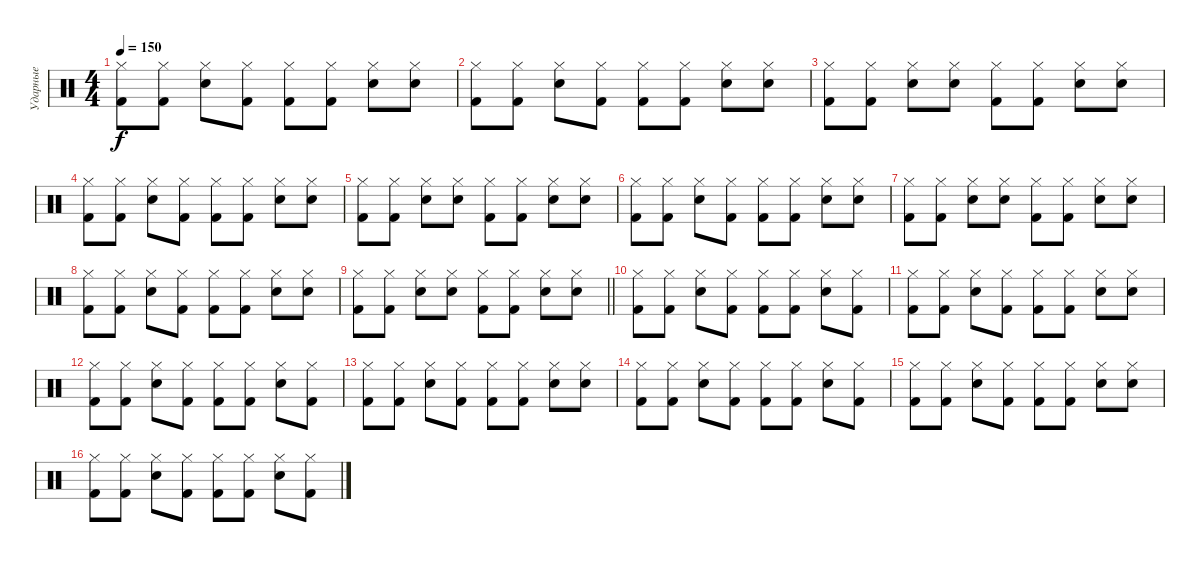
\track ("Ударные" "Ударные") {instrument percussion}
\staff {score}
\articulation defaults
\ts (4 4)
\tempo 150
\clef neutral
\ks c
("Hi-Hat (closed)" "Kick (hit) 2").8{dy f} ("Hi-Hat (closed)" "Kick (hit) 2").8 ("Hi-Hat (closed)" "Snare (hit) 2").8 ("Hi-Hat (closed)" "Kick (hit) 2").8 ("Hi-Hat (closed)" "Kick (hit) 2").8 ("Hi-Hat (closed)" "Kick (hit) 2").8 ("Hi-Hat (closed)" "Snare (hit) 2").8 ("Hi-Hat (closed)" "Snare (hit) 2").8 |
("Hi-Hat (closed)" "Kick (hit) 2").8 ("Hi-Hat (closed)" "Kick (hit) 2").8 ("Hi-Hat (closed)" "Snare (hit) 2").8 ("Hi-Hat (closed)" "Kick (hit) 2").8 ("Hi-Hat (closed)" "Kick (hit) 2").8 ("Hi-Hat (closed)" "Kick (hit) 2").8 ("Hi-Hat (closed)" "Snare (hit) 2").8 ("Hi-Hat (closed)" "Snare (hit) 2").8 |
("Hi-Hat (closed)" "Kick (hit) 2").8 ("Hi-Hat (closed)" "Kick (hit) 2").8 ("Hi-Hat (closed)" "Snare (hit) 2").8 ("Hi-Hat (closed)" "Snare (hit) 2").8 ("Hi-Hat (closed)" "Kick (hit) 2").8 ("Hi-Hat (closed)" "Kick (hit) 2").8 ("Hi-Hat (closed)" "Snare (hit) 2").8 ("Hi-Hat (closed)" "Snare (hit) 2").8 |
("Hi-Hat (closed)" "Kick (hit) 2").8 ("Hi-Hat (closed)" "Kick (hit) 2").8 ("Hi-Hat (closed)" "Snare (hit) 2").8 ("Hi-Hat (closed)" "Kick (hit) 2").8 ("Hi-Hat (closed)" "Kick (hit) 2").8 ("Hi-Hat (closed)" "Kick (hit) 2").8 ("Hi-Hat (closed)" "Snare (hit) 2").8 ("Hi-Hat (closed)" "Snare (hit) 2").8 |
("Hi-Hat (closed)" "Kick (hit) 2").8 ("Hi-Hat (closed)" "Kick (hit) 2").8 ("Hi-Hat (closed)" "Snare (hit) 2").8 ("Hi-Hat (closed)" "Snare (hit) 2").8 ("Hi-Hat (closed)" "Kick (hit) 2").8 ("Hi-Hat (closed)" "Kick (hit) 2").8 ("Hi-Hat (closed)" "Snare (hit) 2").8 ("Hi-Hat (closed)" "Snare (hit) 2").8 |
("Hi-Hat (closed)" "Kick (hit) 2").8 ("Hi-Hat (closed)" "Kick (hit) 2").8 ("Hi-Hat (closed)" "Snare (hit) 2").8 ("Hi-Hat (closed)" "Kick (hit) 2").8 ("Hi-Hat (closed)" "Kick (hit) 2").8 ("Hi-Hat (closed)" "Kick (hit) 2").8 ("Hi-Hat (closed)" "Snare (hit) 2").8 ("Hi-Hat (closed)" "Snare (hit) 2").8 |
("Hi-Hat (closed)" "Kick (hit) 2").8 ("Hi-Hat (closed)" "Kick (hit) 2").8 ("Hi-Hat (closed)" "Snare (hit) 2").8 ("Hi-Hat (closed)" "Snare (hit) 2").8 ("Hi-Hat (closed)" "Kick (hit) 2").8 ("Hi-Hat (closed)" "Kick (hit) 2").8 ("Hi-Hat (closed)" "Snare (hit) 2").8 ("Hi-Hat (closed)" "Snare (hit) 2").8 |
("Hi-Hat (closed)" "Kick (hit) 2").8 ("Hi-Hat (closed)" "Kick (hit) 2").8 ("Hi-Hat (closed)" "Snare (hit) 2").8 ("Hi-Hat (closed)" "Kick (hit) 2").8 ("Hi-Hat (closed)" "Kick (hit) 2").8 ("Hi-Hat (closed)" "Kick (hit) 2").8 ("Hi-Hat (closed)" "Snare (hit) 2").8 ("Hi-Hat (closed)" "Snare (hit) 2").8 |
\barLineRight lightlight
("Hi-Hat (closed)" "Kick (hit) 2").8 ("Hi-Hat (closed)" "Kick (hit) 2").8 ("Hi-Hat (closed)" "Snare (hit) 2").8 ("Hi-Hat (closed)" "Snare (hit) 2").8 ("Hi-Hat (closed)" "Kick (hit) 2").8 ("Hi-Hat (closed)" "Kick (hit) 2").8 ("Hi-Hat (closed)" "Snare (hit) 2").8 ("Hi-Hat (closed)" "Snare (hit) 2").8 |
("Hi-Hat (closed)" "Kick (hit) 2").8 ("Hi-Hat (closed)" "Kick (hit) 2").8 ("Hi-Hat (closed)" "Snare (hit) 2").8 ("Hi-Hat (closed)" "Kick (hit) 2").8 ("Hi-Hat (closed)" "Kick (hit) 2").8 ("Hi-Hat (closed)" "Kick (hit) 2").8 ("Hi-Hat (closed)" "Snare (hit) 2").8 ("Hi-Hat (closed)" "Kick (hit) 2").8 |
("Hi-Hat (closed)" "Kick (hit) 2").8 ("Hi-Hat (closed)" "Kick (hit) 2").8 ("Hi-Hat (closed)" "Snare (hit) 2").8 ("Hi-Hat (closed)" "Kick (hit) 2").8 ("Hi-Hat (closed)" "Kick (hit) 2").8 ("Hi-Hat (closed)" "Kick (hit) 2").8 ("Hi-Hat (closed)" "Snare (hit) 2").8 ("Hi-Hat (closed)" "Snare (hit) 2").8 |
("Hi-Hat (closed)" "Kick (hit) 2").8 ("Hi-Hat (closed)" "Kick (hit) 2").8 ("Hi-Hat (closed)" "Snare (hit) 2").8 ("Hi-Hat (closed)" "Kick (hit) 2").8 ("Hi-Hat (closed)" "Kick (hit) 2").8 ("Hi-Hat (closed)" "Kick (hit) 2").8 ("Hi-Hat (closed)" "Snare (hit) 2").8 ("Hi-Hat (closed)" "Kick (hit) 2").8 |
("Hi-Hat (closed)" "Kick (hit) 2").8 ("Hi-Hat (closed)" "Kick (hit) 2").8 ("Hi-Hat (closed)" "Snare (hit) 2").8 ("Hi-Hat (closed)" "Kick (hit) 2").8 ("Hi-Hat (closed)" "Kick (hit) 2").8 ("Hi-Hat (closed)" "Kick (hit) 2").8 ("Hi-Hat (closed)" "Snare (hit) 2").8 ("Hi-Hat (closed)" "Snare (hit) 2").8 |
("Hi-Hat (closed)" "Kick (hit) 2").8 ("Hi-Hat (closed)" "Kick (hit) 2").8 ("Hi-Hat (closed)" "Snare (hit) 2").8 ("Hi-Hat (closed)" "Kick (hit) 2").8 ("Hi-Hat (closed)" "Kick (hit) 2").8 ("Hi-Hat (closed)" "Kick (hit) 2").8 ("Hi-Hat (closed)" "Snare (hit) 2").8 ("Hi-Hat (closed)" "Kick (hit) 2").8 |
("Hi-Hat (closed)" "Kick (hit) 2").8 ("Hi-Hat (closed)" "Kick (hit) 2").8 ("Hi-Hat (closed)" "Snare (hit) 2").8 ("Hi-Hat (closed)" "Kick (hit) 2").8 ("Hi-Hat (closed)" "Kick (hit) 2").8 ("Hi-Hat (closed)" "Kick (hit) 2").8 ("Hi-Hat (closed)" "Snare (hit) 2").8 ("Hi-Hat (closed)" "Snare (hit) 2").8 |
("Hi-Hat (closed)" "Kick (hit) 2").8 ("Hi-Hat (closed)" "Kick (hit) 2").8 ("Hi-Hat (closed)" "Snare (hit) 2").8 ("Hi-Hat (closed)" "Kick (hit) 2").8 ("Hi-Hat (closed)" "Kick (hit) 2").8 ("Hi-Hat (closed)" "Kick (hit) 2").8 ("Hi-Hat (closed)" "Snare (hit) 2").8 ("Hi-Hat (closed)" "Kick (hit) 2").8
